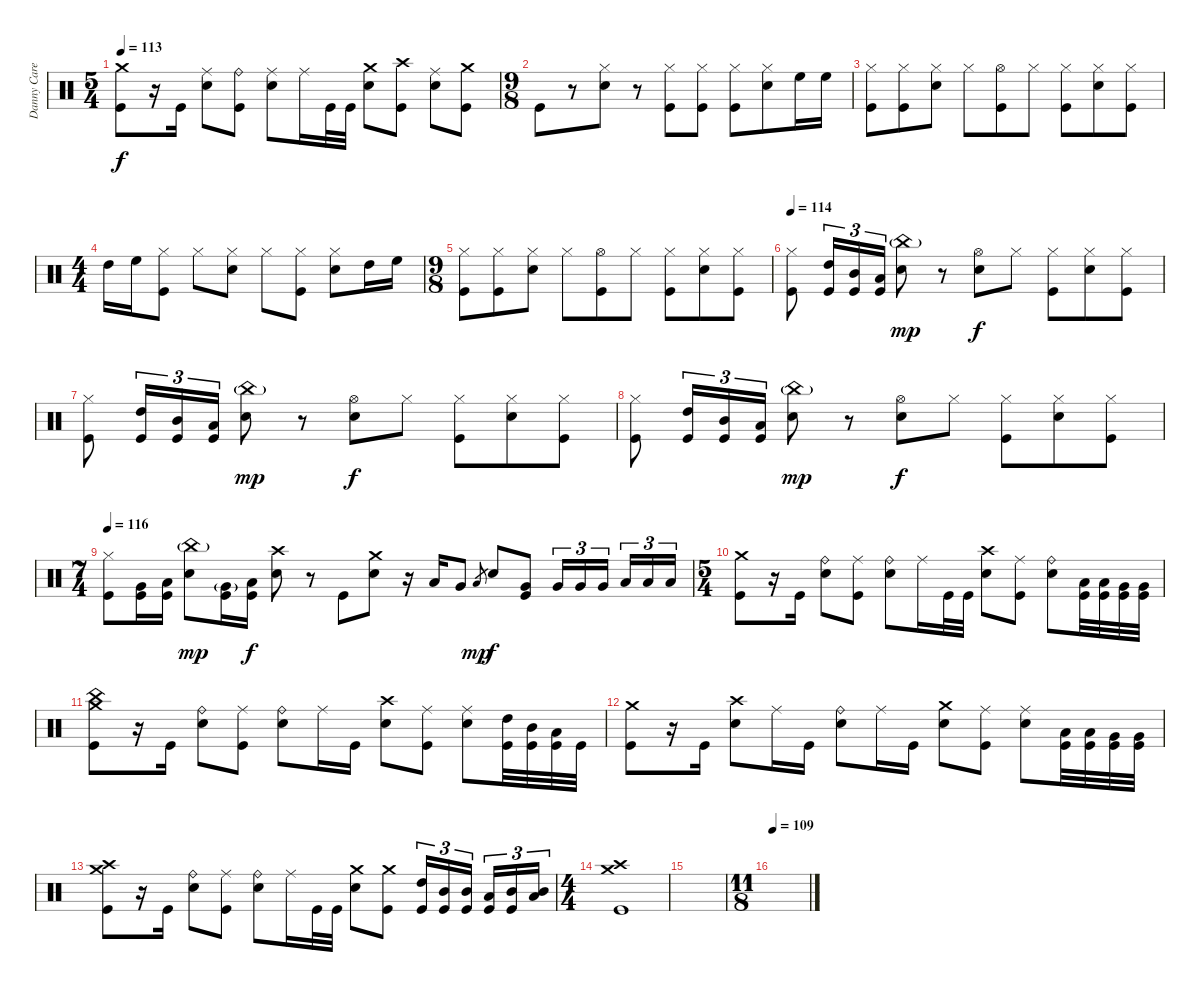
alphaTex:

\track ("Danny Carey (drum)" "Danny Care") {instrument percussion}
\staff {score}
\articulation defaults
\ts (5 4)
\tempo 113
\clef neutral
\ks c
("Crash medium (hit)" "Kick (hit)").8{dy f} r.16 "Kick (hit)".16 ("Ride (middle)" "Snare (hit) 2").8 ("Ride (bell)" "Kick (hit)").8 ("Ride (middle)" "Snare (hit) 2").8 "Ride (middle)".16 "Kick (hit)".32 "Kick (hit)".32 ("Crash medium (hit)" "Snare (hit) 2").8 ("Crash high (hit)" "Kick (hit)").8 ("Ride (middle)" "Snare (hit) 2").8 ("Crash medium (hit)" "Kick (hit)").8 |
\ts (9 8)
"Kick (hit)".8 r.8 ("Hi-Hat (closed)" "Snare (hit) 2").8 r.8 ("Hi-Hat (closed)" "Kick (hit)").8 ("Hi-Hat (closed)" "Kick (hit)").8 ("Hi-Hat (closed)" "Kick (hit)").8 ("Hi-Hat (closed)" "Snare (hit) 2").8 "High Floor Tom (hit)".16 "High Floor Tom (hit)".16 |
("Hi-Hat (closed)" "Kick (hit)").8 ("Hi-Hat (closed)" "Kick (hit)").8 ("Hi-Hat (closed)" "Snare (hit) 2").8 "Hi-Hat (closed)".8 ("Hi-Hat (open)" "Kick (hit)").8 "Hi-Hat (closed)".8 ("Hi-Hat (closed)" "Kick (hit)").8 ("Hi-Hat (closed)" "Snare (hit) 2").8 ("Hi-Hat (closed)" "Kick (hit)").8 |
\ts (4 4)
"High Tom (hit)".16 "High Floor Tom (hit)".16 ("Hi-Hat (closed)" "Kick (hit)").8 "Hi-Hat (closed)".8 ("Hi-Hat (closed)" "Snare (hit) 2").8 "Hi-Hat (closed)".8 ("Hi-Hat (closed)" "Kick (hit)").8 ("Hi-Hat (closed)" "Snare (hit) 2").8 "High Tom (hit)".16 "High Floor Tom (hit)".16 |
\ts (9 8)
("Hi-Hat (closed)" "Kick (hit)").8 ("Hi-Hat (closed)" "Kick (hit)").8 ("Hi-Hat (closed)" "Snare (hit) 2").8 "Hi-Hat (closed)".8 ("Hi-Hat (open)" "Kick (hit)").8 "Hi-Hat (closed)".8 ("Hi-Hat (closed)" "Kick (hit)").8 ("Hi-Hat (closed)" "Snare (hit) 2").8 ("Hi-Hat (closed)" "Kick (hit)").8 |
\tempo 114
("Hi-Hat (closed)" "Kick (hit)").8 ("High Tom (hit)" "Kick (hit)").16{tu (3 2)} ("Mid Tom (hit)" "Kick (hit)").16{tu (3 2)} ("Low Tom (hit)" "Kick (hit)").16{tu (3 2)} ("China (hit)"{g} "Snare (hit) 2").8{dy mp} r.8 ("Hi-Hat (open)" "Snare (hit) 2").8{dy f} "Hi-Hat (closed)".8 ("Hi-Hat (closed)" "Kick (hit)").8 ("Hi-Hat (closed)" "Snare (hit) 2").8 ("Hi-Hat (closed)" "Kick (hit)").8 |
("Hi-Hat (closed)" "Kick (hit)").8 ("High Tom (hit)" "Kick (hit)").16{tu (3 2)} ("Mid Tom (hit)" "Kick (hit)").16{tu (3 2)} ("Low Tom (hit)" "Kick (hit)").16{tu (3 2)} ("China (hit)"{g} "Snare (hit) 2").8{dy mp} r.8 ("Hi-Hat (open)" "Snare (hit) 2").8{dy f} "Hi-Hat (closed)".8 ("Hi-Hat (closed)" "Kick (hit)").8 ("Hi-Hat (closed)" "Snare (hit) 2").8 ("Hi-Hat (closed)" "Kick (hit)").8 |
("Hi-Hat (closed)" "Kick (hit)").8 ("High Tom (hit)" "Kick (hit)").16{tu (3 2)} ("Mid Tom (hit)" "Kick (hit)").16{tu (3 2)} ("Low Tom (hit)" "Kick (hit)").16{tu (3 2)} ("China (hit)"{g} "Snare (hit) 2").8{dy mp} r.8 ("Hi-Hat (open)" "Snare (hit) 2").8{dy f} "Hi-Hat (closed)".8 ("Hi-Hat (closed)" "Kick (hit)").8 ("Hi-Hat (closed)" "Snare (hit) 2").8 ("Hi-Hat (closed)" "Kick (hit)").8 |
\ts (7 4)
\tempo 116
("Hi-Hat (closed)" "Kick (hit)").8 ("Very Low Tom (hit)" "Kick (hit)").16 ("Low Tom (hit)" "Kick (hit)").16 ("China (hit)"{g} "Snare (hit) 2").8{dy mp} ("Very Low Tom (hit)"{g} "Kick (hit)").16 ("Low Floor Tom (hit)" "Kick (hit)").16{dy f} ("Crash high (hit)" "Snare (hit) 2").8 r.8 "Kick (hit)".8 ("Crash medium (hit)" "Snare (hit) 2").8 r.16 "Low Tom (hit)".16 "Very Low Tom (hit)".8 "Low Tom (hit)".8{gr dy mp} "Snare (hit) 2".8{dy f} ("Very Low Tom (hit)" "Kick (hit)").8 "Very Low Tom (hit)".16{tu (3 2)} "Very Low Tom (hit)".16{tu (3 2)} "Very Low Tom (hit)".16{tu (3 2) beam splitsecondary} "Low Floor Tom (hit)".16{tu (3 2)} "Low Floor Tom (hit)".16{tu (3 2)} "Low Floor Tom (hit)".16{tu (3 2)} |
\ts (5 4)
("Crash medium (hit)" "Kick (hit)").8 r.16 "Kick (hit)".16 ("Ride (bell)" "Snare (hit) 2").8 ("Ride (middle)" "Kick (hit)").8 ("Ride (bell)" "Snare (hit) 2").8 "Ride (middle)".16 "Kick (hit)".32 "Kick (hit)".32 ("Crash high (hit)" "Snare (hit) 2").8 ("Ride (middle)" "Kick (hit)").8 ("Ride (bell)" "Snare (hit) 2").8 ("Low Tom (hit)" "Kick (hit)").32 ("Low Tom (hit)" "Kick (hit)").32 ("Very Low Tom (hit)" "Kick (hit)").32 ("Very Low Tom (hit)" "Kick (hit)").32 |
("China (hit)" "Crash medium (hit)" "Kick (hit)").8 r.16 "Kick (hit)".16 ("Ride (bell)" "Snare (hit) 2").8 ("Ride (middle)" "Kick (hit)").8 ("Ride (bell)" "Snare (hit) 2").8 "Ride (middle)".16 "Kick (hit)".16 ("Crash high (hit)" "Snare (hit) 2").8 ("Ride (middle)" "Kick (hit)").8 ("Ride (middle)" "Snare (hit) 2").8 ("High Tom (hit)" "Kick (hit)").32 ("Mid Tom (hit)" "Kick (hit)").32 ("Low Tom (hit)" "Kick (hit)").32 "Kick (hit)".32 |
("Crash medium (hit)" "Kick (hit)").8 r.16 "Kick (hit)".16 ("Crash high (hit)" "Snare (hit) 2").8 "Ride (middle)".16 "Kick (hit)".16 ("Ride (bell)" "Snare (hit) 2").8 "Ride (middle)".16 "Kick (hit)".16 ("Crash medium (hit)" "Snare (hit) 2").8 ("Ride (middle)" "Kick (hit)").8 ("Ride (middle)" "Snare (hit) 2").8 ("Low Tom (hit)" "Kick (hit)").32 ("Low Tom (hit)" "Kick (hit)").32 ("Very Low Tom (hit)" "Kick (hit)").32 ("Very Low Tom (hit)" "Kick (hit)").32 |
("Crash medium (hit)" "Crash high (hit)" "Kick (hit)").8 r.16 "Kick (hit)".16 ("Ride (bell)" "Snare (hit) 2").8 ("Ride (middle)" "Kick (hit)").8 ("Ride (bell)" "Snare (hit) 2").8 "Ride (middle)".16 "Kick (hit)".32 "Kick (hit)".32 ("Crash medium (hit)" "Snare (hit) 2").8 ("Crash medium (hit)" "Kick (hit)").8 ("High Tom (hit)" "Kick (hit)").16{tu (3 2)} ("Mid Tom (hit)" "Kick (hit)").16{tu (3 2)} ("Mid Tom (hit)" "Kick (hit)").16{tu (3 2) beam splitsecondary} ("Low Tom (hit)" "Kick (hit)").16{tu (3 2)} ("Mid Tom (hit)" "Kick (hit)").16{tu (3 2)} ("Mid Tom (hit)" "Low Tom (hit)").16{tu (3 2)} |
\ts (4 4)
("Crash medium (hit)" "Crash high (hit)" "Kick (hit)").1 |
|
\ts (11 8)
\tempo 109
